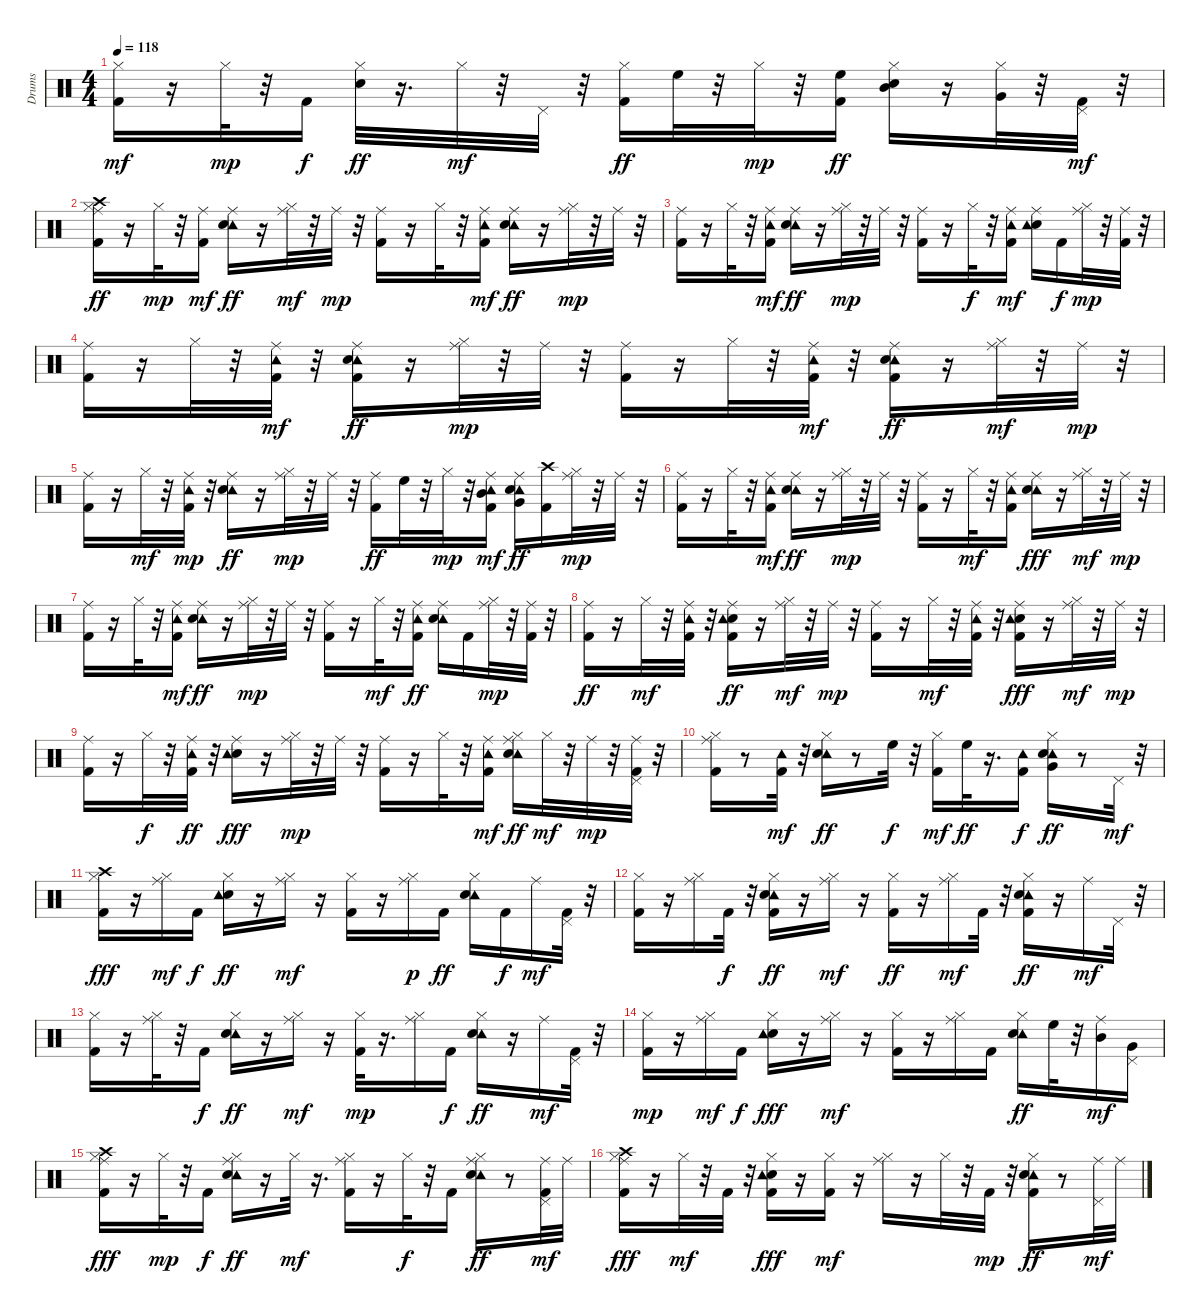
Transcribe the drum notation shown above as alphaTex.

\track ("Drums" "Drums") {instrument percussion}
\staff {score}
\articulation defaults
\ts (4 4)
\tempo 118
\clef neutral
\ks c
("Hi-Hat (closed)" "Kick (hit) 2").16{dy mf} r.16 "Hi-Hat (closed)".32{dy mp} r.32 "Kick (hit) 2".16{dy f} ("Hi-Hat (closed)" "Electric Snare (hit)").32{dy ff} r.16{d} "Hi-Hat (closed)".32{dy mf} r.32 "Pedal Hi-Hat (hit)".32 r.32 ("Hi-Hat (closed)" "Kick (hit) 2").16{dy ff} "High Floor Tom (hit)".32 r.32 "Hi-Hat (closed)".32{dy mp} r.32 ("Kick (hit) 2" "High Floor Tom (hit)").16{dy ff} ("Mid Tom (hit)" "Hi-Hat (closed)" "Electric Snare (hit)").16 r.16 ("Hi-Hat (closed)" "Very Low Tom (hit)").32 r.32 ("Kick (hit) 2" "Pedal Hi-Hat (hit)").32{dy mf} r.32 |
("Hi-Hat (closed)" "Kick (hit) 2" "Ride (middle)" "Crash high (hit)").16{dy ff} r.16 "Hi-Hat (closed)".32{dy mp} r.32 ("Ride (middle)" "Kick (hit) 2").16{dy mf} ("Ride (middle)" "Tambourine (hit)" "Electric Snare (hit)").16{dy ff} r.16 ("Ride (middle)" "Hi-Hat (closed)").32{dy mf} r.32 "Ride (middle)".32{dy mp} r.32 ("Kick (hit) 2" "Ride (middle)").16 r.16 "Hi-Hat (closed)".32 r.32 ("Kick (hit) 2" "Tambourine (hit)" "Ride (middle)").16{dy mf} ("Ride (middle)" "Tambourine (hit)" "Electric Snare (hit)").16{dy ff} r.16 ("Hi-Hat (closed)" "Ride (middle)").32{dy mp} r.32 "Ride (middle)".32 r.32 |
("Kick (hit) 2" "Ride (middle)").16 r.16 "Hi-Hat (closed)".32 r.32 ("Ride (middle)" "Tambourine (hit)" "Kick (hit) 2").16{dy mf} ("Ride (middle)" "Tambourine (hit)" "Electric Snare (hit)").16{dy ff} r.16 ("Hi-Hat (closed)" "Ride (middle)").32{dy mp} r.32 "Ride (middle)".32 r.32 ("Ride (middle)" "Kick (hit) 2").16 r.16 "Hi-Hat (closed)".32{dy f} r.32 ("Ride (middle)" "Kick (hit) 2" "Tambourine (hit)").16{dy mf} ("Electric Snare (hit)" "Tambourine (hit)" "Ride (middle)").16 "Kick (hit) 2".16{dy f} ("Hi-Hat (closed)" "Ride (middle)").32{dy mp} r.32 ("Kick (hit) 2" "Ride (middle)").32 r.32 |
("Kick (hit) 2" "Ride (middle)").16 r.16 "Hi-Hat (closed)".32 r.32 ("Kick (hit) 2" "Ride (middle)" "Tambourine (hit)").32{dy mf} r.32 ("Ride (middle)" "Kick (hit) 2" "Tambourine (hit)" "Electric Snare (hit)").16{dy ff} r.16 ("Ride (middle)" "Hi-Hat (closed)").32{dy mp} r.32 "Ride (middle)".32 r.32 ("Kick (hit) 2" "Ride (middle)").16 r.16 "Hi-Hat (closed)".32 r.32 ("Kick (hit) 2" "Ride (middle)" "Tambourine (hit)").32{dy mf} r.32 ("Kick (hit) 2" "Tambourine (hit)" "Ride (middle)" "Electric Snare (hit)").16{dy ff} r.16 ("Ride (middle)" "Hi-Hat (closed)").32{dy mf} r.32 "Ride (middle)".32{dy mp} r.32 |
("Ride (middle)" "Kick (hit) 2").16 r.16 "Hi-Hat (closed)".32{dy mf} r.32 ("Kick (hit) 2" "Ride (middle)" "Tambourine (hit)").32{dy mp} r.32 ("Ride (middle)" "Tambourine (hit)" "Electric Snare (hit)").16{dy ff} r.16 ("Hi-Hat (closed)" "Ride (middle)").32{dy mp} r.32 "Ride (middle)".32 r.32 ("Ride (middle)" "Kick (hit) 2").16{dy ff} "High Floor Tom (hit)".32 r.32 "Hi-Hat (closed)".32{dy mp} r.32 ("Kick (hit) 2" "Ride (middle)" "Tambourine (hit)" "Mid Tom (hit)").16{dy mf} ("Ride (middle)" "Very Low Tom (hit)" "Tambourine (hit)" "Electric Snare (hit)").16{dy ff} ("Kick (hit) 2" "Crash high (hit)").16 ("Ride (middle)" "Hi-Hat (closed)").32{dy mp} r.32 "Ride (middle)".32 r.32 |
("Kick (hit) 2" "Ride (middle)").16 r.16 "Hi-Hat (closed)".32 r.32 ("Kick (hit) 2" "Ride (middle)" "Tambourine (hit)").16{dy mf} ("Ride (middle)" "Tambourine (hit)" "Electric Snare (hit)").16{dy ff} r.16 ("Ride (middle)" "Hi-Hat (closed)").32{dy mp} r.32 "Ride (middle)".32 r.32 ("Ride (middle)" "Kick (hit) 2").16 r.16 "Hi-Hat (closed)".32{dy mf} r.32 ("Tambourine (hit)" "Kick (hit) 2" "Ride (middle)").16 ("Ride (middle)" "Tambourine (hit)" "Electric Snare (hit)").16{dy fff} r.16 ("Ride (middle)" "Hi-Hat (closed)").32{dy mf} r.32 "Ride (middle)".32{dy mp} r.32 |
("Kick (hit) 2" "Ride (middle)").16 r.16 "Hi-Hat (closed)".32 r.32 ("Ride (middle)" "Kick (hit) 2" "Tambourine (hit)").16{dy mf} ("Ride (middle)" "Tambourine (hit)" "Electric Snare (hit)").16{dy ff} r.16 ("Hi-Hat (closed)" "Ride (middle)").32{dy mp} r.32 "Ride (middle)".32 r.32 ("Kick (hit) 2" "Ride (middle)").16 r.16 "Hi-Hat (closed)".32{dy mf} r.32 ("Ride (middle)" "Kick (hit) 2" "Tambourine (hit)").16{dy ff} ("Ride (middle)" "Tambourine (hit)" "Electric Snare (hit)").16 "Kick (hit) 2".16 ("Hi-Hat (closed)" "Ride (middle)").32{dy mp} r.32 ("Kick (hit) 2" "Ride (middle)").32 r.32 |
("Ride (middle)" "Kick (hit) 2").16{dy ff} r.16 "Hi-Hat (closed)".32{dy mf} r.32 ("Kick (hit) 2" "Ride (middle)" "Tambourine (hit)").32 r.32 ("Ride (middle)" "Kick (hit) 2" "Electric Snare (hit)" "Tambourine (hit)").16{dy ff} r.16 ("Ride (middle)" "Hi-Hat (closed)").32{dy mf} r.32 "Ride (middle)".32{dy mp} r.32 ("Kick (hit) 2" "Ride (middle)").16 r.16 "Hi-Hat (closed)".32{dy mf} r.32 ("Kick (hit) 2" "Ride (middle)" "Tambourine (hit)").32 r.32 ("Ride (middle)" "Kick (hit) 2" "Electric Snare (hit)" "Tambourine (hit)").16{dy fff} r.16 ("Ride (middle)" "Hi-Hat (closed)").32{dy mf} r.32 "Ride (middle)".32{dy mp} r.32 |
("Kick (hit) 2" "Ride (middle)").16 r.16 "Hi-Hat (closed)".32{dy f} r.32 ("Tambourine (hit)" "Ride (middle)" "Kick (hit) 2").32{dy ff} r.32 ("Ride (middle)" "Electric Snare (hit)" "Tambourine (hit)").16{dy fff} r.16 ("Hi-Hat (closed)" "Ride (middle)").32{dy mp} r.32 "Ride (middle)".32 r.32 ("Ride (middle)" "Kick (hit) 2").16 r.16 "Hi-Hat (closed)".32 r.32 ("Ride (middle)" "Kick (hit) 2" "Tambourine (hit)").16{dy mf} ("Ride (middle)" "Hi-Hat (closed)" "Tambourine (hit)" "Electric Snare (hit)").16{dy ff} "Hi-Hat (closed)".32{dy mf} r.32 "Ride (middle)".32{dy mp} r.32 ("Pedal Hi-Hat (hit)" "Kick (hit) 2" "Ride (middle)").32 r.32 |
("Ride (middle)" "Kick (hit) 2" "Hi-Hat (closed)").16 r.8 ("Tambourine (hit)" "Kick (hit) 2").32{dy mf} r.32 ("Hi-Hat (closed)" "Tambourine (hit)" "Electric Snare (hit)").16{dy ff} r.8 "High Floor Tom (hit)".32{dy f} r.32 ("Kick (hit) 2" "Hi-Hat (closed)").16{dy mf} "High Floor Tom (hit)".32{dy ff} r.16{d} ("Kick (hit) 2" "Tambourine (hit)").16{dy f} ("Very Low Tom (hit)" "Hi-Hat (closed)" "Tambourine (hit)" "Electric Snare (hit)").16{dy ff} r.8 "Pedal Hi-Hat (hit)".32{dy mf} r.32 |
("Kick (hit) 2" "Hi-Hat (closed)" "Crash high (hit)").16{dy fff} r.16 ("Hi-Hat (closed)" "Ride (middle)").16{dy mf} "Kick (hit) 2".16{dy f} ("Electric Snare (hit)" "Hi-Hat (closed)" "Tambourine (hit)").16{dy ff} r.16 ("Ride (middle)" "Hi-Hat (closed)").16{dy mf} r.16 ("Kick (hit) 2" "Hi-Hat (closed)").16 r.16 ("Ride (middle)" "Hi-Hat (closed)").16{dy p} "Kick (hit) 2".16{dy ff} ("Hi-Hat (closed)" "Tambourine (hit)" "Electric Snare (hit)").16 "Kick (hit) 2".16{dy f} "Ride (middle)".16{dy mf} ("Kick (hit) 2" "Pedal Hi-Hat (hit)").32 r.32 |
("Hi-Hat (closed)" "Kick (hit) 2").16 r.16 ("Ride (middle)" "Hi-Hat (closed)").16 "Kick (hit) 2".32{dy f} r.32 ("Tambourine (hit)" "Kick (hit) 2" "Hi-Hat (closed)" "Electric Snare (hit)").16{dy ff} r.16 ("Hi-Hat (closed)" "Ride (middle)").16{dy mf} r.16 ("Kick (hit) 2" "Hi-Hat (closed)").16{dy ff} r.16 ("Hi-Hat (closed)" "Ride (middle)").16{dy mf} "Kick (hit) 2".32 r.32 ("Kick (hit) 2" "Tambourine (hit)" "Hi-Hat (closed)" "Electric Snare (hit)").16{dy ff} r.16 "Ride (middle)".16{dy mf} "Pedal Hi-Hat (hit)".32 r.32 |
("Hi-Hat (closed)" "Kick (hit) 2").16 r.16 ("Hi-Hat (closed)" "Ride (middle)").32 r.32 "Kick (hit) 2".16{dy f} ("Hi-Hat (closed)" "Tambourine (hit)" "Electric Snare (hit)").16{dy ff} r.16 ("Hi-Hat (closed)" "Ride (middle)").16{dy mf} r.16 ("Kick (hit) 2" "Hi-Hat (closed)").32{dy mp} r.16{d} ("Ride (middle)" "Hi-Hat (closed)").16 "Kick (hit) 2".16{dy f} ("Tambourine (hit)" "Hi-Hat (closed)" "Electric Snare (hit)").16{dy ff} r.16 "Ride (middle)".16{dy mf} ("Kick (hit) 2" "Pedal Hi-Hat (hit)").32 r.32 |
("Kick (hit) 2" "Hi-Hat (closed)").16{dy mp} r.16 ("Hi-Hat (closed)" "Ride (middle)").16{dy mf} "Kick (hit) 2".16{dy f} ("Hi-Hat (closed)" "Electric Snare (hit)" "Tambourine (hit)").16{dy fff} r.16 ("Hi-Hat (closed)" "Ride (middle)").16{dy mf} r.16 ("Kick (hit) 2" "Hi-Hat (closed)").16 r.16 ("Hi-Hat (closed)" "Ride (middle)").16 "Kick (hit) 2".16 ("Tambourine (hit)" "Hi-Hat (closed)" "Electric Snare (hit)").16{dy ff} "High Floor Tom (hit)".32 r.32 ("Mid Tom (hit)" "Ride (middle)").16{dy mf} ("Pedal Hi-Hat (hit)" "Very Low Tom (hit)").16 |
("Ride (middle)" "Kick (hit) 2" "Hi-Hat (closed)" "Crash high (hit)").16{dy fff} r.16 "Hi-Hat (closed)".32{dy mp} r.32 "Kick (hit) 2".16{dy f} ("Ride (middle)" "Hi-Hat (closed)" "Tambourine (hit)" "Electric Snare (hit)").16{dy ff} r.16 "Hi-Hat (closed)".32{dy mf} r.16{d} ("Kick (hit) 2" "Ride (middle)" "Hi-Hat (closed)").16 r.16 "Hi-Hat (closed)".32{dy f} r.32 "Kick (hit) 2".16 ("Ride (middle)" "Hi-Hat (closed)" "Tambourine (hit)" "Electric Snare (hit)").16{dy ff} r.8 ("Ride (middle)" "Kick (hit) 2" "Pedal Hi-Hat (hit)").32{dy mf} "Ride (middle)".32 |
("Kick (hit) 2" "Ride (middle)" "Hi-Hat (closed)" "Crash high (hit)").16{dy fff} r.16 "Hi-Hat (closed)".32{dy mf} r.32 "Kick (hit) 2".32 r.32 ("Kick (hit) 2" "Hi-Hat (closed)" "Electric Snare (hit)" "Tambourine (hit)").16{dy fff} r.16 ("Kick (hit) 2" "Hi-Hat (closed)").16{dy mf} r.16 ("Ride (middle)" "Hi-Hat (closed)").16 r.16 "Hi-Hat (closed)".32 r.32 "Kick (hit) 2".32{dy mp} r.32 ("Kick (hit) 2" "Tambourine (hit)" "Hi-Hat (closed)" "Electric Snare (hit)").16{dy ff} r.8 ("Ride (middle)" "Pedal Hi-Hat (hit)").32{dy mf} "Ride (middle)".32
